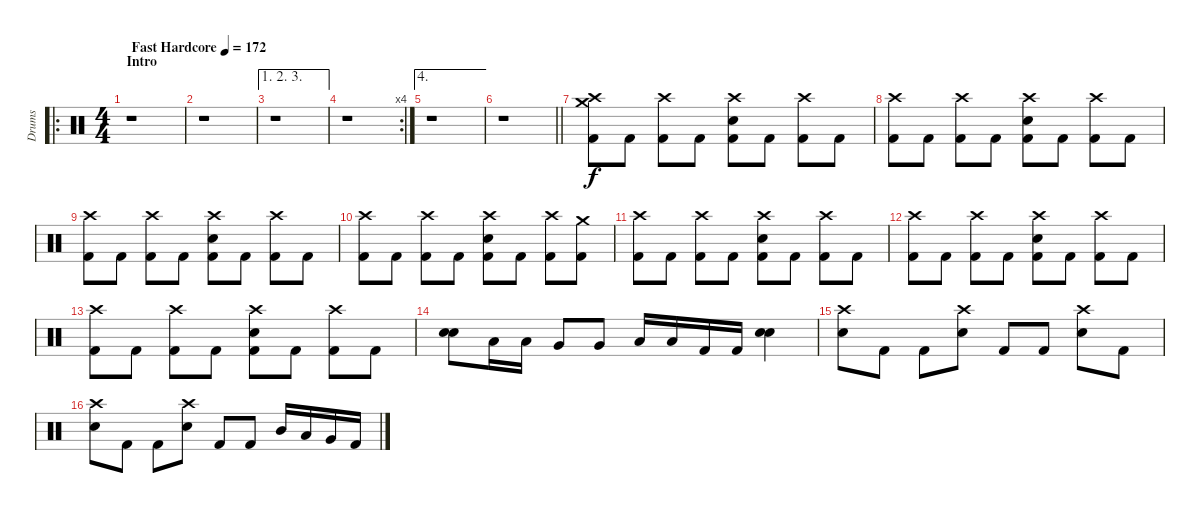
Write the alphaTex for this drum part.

\track ("Drums" "Drums") {instrument percussion}
\staff {score}
\articulation defaults
\ro
\ts (4 4)
\section ("" "Intro")
\tempo (172 "Fast Hardcore")
\clef neutral
\ks c
r.1{dy f} |
r.1 |
\ae (1 2 3)
r.1 |
\rc 4
r.1 |
\ae 4
r.1 |
\barLineRight lightlight
r.1 |
\section ("" " ")
("Crash medium (hit)" "Crash high (hit)" "Kick (hit) 2").8 "Kick (hit) 2".8 ("Crash high (hit)" "Kick (hit) 2").8 "Kick (hit) 2".8 ("Crash high (hit)" "Electric Snare (hit)" "Kick (hit) 2").8 "Kick (hit) 2".8 ("Crash high (hit)" "Kick (hit) 2").8 "Kick (hit) 2".8 |
("Crash high (hit)" "Kick (hit) 2").8 "Kick (hit) 2".8 ("Crash high (hit)" "Kick (hit) 2").8 "Kick (hit) 2".8 ("Crash high (hit)" "Electric Snare (hit)" "Kick (hit) 2").8 "Kick (hit) 2".8 ("Crash high (hit)" "Kick (hit) 2").8 "Kick (hit) 2".8 |
("Crash high (hit)" "Kick (hit) 2").8 "Kick (hit) 2".8 ("Crash high (hit)" "Kick (hit) 2").8 "Kick (hit) 2".8 ("Crash high (hit)" "Electric Snare (hit)" "Kick (hit) 2").8 "Kick (hit) 2".8 ("Crash high (hit)" "Kick (hit) 2").8 "Kick (hit) 2".8 |
("Crash high (hit)" "Kick (hit) 2").8 "Kick (hit) 2".8 ("Crash high (hit)" "Kick (hit) 2").8 "Kick (hit) 2".8 ("Crash high (hit)" "Electric Snare (hit)" "Kick (hit) 2").8 "Kick (hit) 2".8 ("Crash high (hit)" "Kick (hit) 2").8 ("Crash medium (hit)" "Kick (hit) 2").8 |
("Crash high (hit)" "Kick (hit) 2").8 "Kick (hit) 2".8 ("Crash high (hit)" "Kick (hit) 2").8 "Kick (hit) 2".8 ("Crash high (hit)" "Electric Snare (hit)" "Kick (hit) 2").8 "Kick (hit) 2".8 ("Crash high (hit)" "Kick (hit) 2").8 "Kick (hit) 2".8 |
("Crash high (hit)" "Kick (hit) 2").8 "Kick (hit) 2".8 ("Crash high (hit)" "Kick (hit) 2").8 "Kick (hit) 2".8 ("Crash high (hit)" "Electric Snare (hit)" "Kick (hit) 2").8 "Kick (hit) 2".8 ("Crash high (hit)" "Kick (hit) 2").8 "Kick (hit) 2".8 |
("Crash high (hit)" "Kick (hit) 2").8 "Kick (hit) 2".8 ("Crash high (hit)" "Kick (hit) 2").8 "Kick (hit) 2".8 ("Crash high (hit)" "Electric Snare (hit)" "Kick (hit) 2").8 "Kick (hit) 2".8 ("Crash high (hit)" "Kick (hit) 2").8 "Kick (hit) 2".8 |
("Electric Snare (hit)" "Electric Snare (hit)").8{bu 120} "Low Tom (hit)".16 "Low Tom (hit)".16 "Very Low Tom (hit)".8 "Very Low Tom (hit)".8 "Low Tom (hit)".16 "Low Tom (hit)".16 "Kick (hit) 2".16 "Kick (hit) 2".16 ("Electric Snare (hit)" "Electric Snare (hit)").4{bu 120} |
("Crash high (hit)" "Electric Snare (hit)").8 "Kick (hit) 2".8 "Kick (hit) 2".8 ("Crash high (hit)" "Electric Snare (hit)").8 "Kick (hit) 2".8 "Kick (hit) 2".8 ("Crash high (hit)" "Electric Snare (hit)").8 "Kick (hit) 2".8 |
("Crash high (hit)" "Electric Snare (hit)").8 "Kick (hit) 2".8 "Kick (hit) 2".8 ("Crash high (hit)" "Electric Snare (hit)").8 "Kick (hit) 2".8 "Kick (hit) 2".8 "Mid Tom (hit)".16 "Low Tom (hit)".16 "Very Low Tom (hit)".16 "Kick (hit) 2".16
